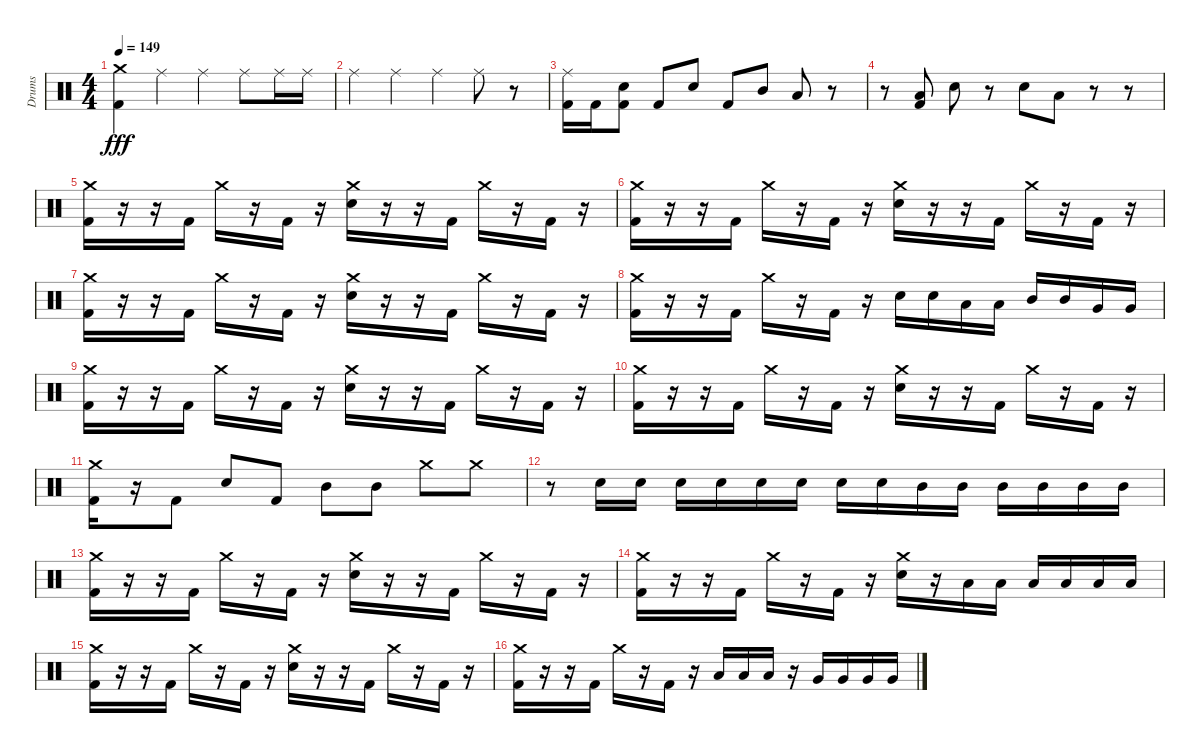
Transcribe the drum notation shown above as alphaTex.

\track ("Drums" "Drums") {instrument percussion}
\staff {score}
\articulation defaults
\ts (4 4)
\tempo 149
\clef neutral
\ks c
("Crash medium (hit)" "Kick (hit) 2").4{dy fff} "Ride (middle)".4 "Ride (middle)".4 "Ride (middle)".8 "Ride (middle)".16 "Ride (middle)".16 |
"Ride (middle)".4 "Ride (middle)".4 "Ride (middle)".4 "Ride (middle)".8 r.8 |
("Ride (middle)" "Kick (hit) 2").16 "Kick (hit) 2".16 ("Electric Snare (hit)" "Kick (hit) 2").8 "Kick (hit) 2".8 "Electric Snare (hit)".8 "Kick (hit) 2".8 "Mid Tom (hit)".8 "Low Tom (hit)".8 r.8 |
r.8 ("Low Tom (hit)" "Kick (hit) 2").8 "Electric Snare (hit)".8 r.8 "Electric Snare (hit)".8 "Low Tom (hit)".8 r.8 r.8 |
("Crash medium (hit)" "Kick (hit) 2").16 r.16 r.16 "Kick (hit) 2".16 "Crash medium (hit)".16 r.16 "Kick (hit) 2".16 r.16 ("Crash medium (hit)" "Electric Snare (hit)").16 r.16 r.16 "Kick (hit) 2".16 "Crash medium (hit)".16 r.16 "Kick (hit) 2".16 r.16 |
("Crash medium (hit)" "Kick (hit) 2").16 r.16 r.16 "Kick (hit) 2".16 "Crash medium (hit)".16 r.16 "Kick (hit) 2".16 r.16 ("Crash medium (hit)" "Electric Snare (hit)").16 r.16 r.16 "Kick (hit) 2".16 "Crash medium (hit)".16 r.16 "Kick (hit) 2".16 r.16 |
("Crash medium (hit)" "Kick (hit) 2").16 r.16 r.16 "Kick (hit) 2".16 "Crash medium (hit)".16 r.16 "Kick (hit) 2".16 r.16 ("Crash medium (hit)" "Electric Snare (hit)").16 r.16 r.16 "Kick (hit) 2".16 "Crash medium (hit)".16 r.16 "Kick (hit) 2".16 r.16 |
("Crash medium (hit)" "Kick (hit) 2").16 r.16 r.16 "Kick (hit) 2".16 "Crash medium (hit)".16 r.16 "Kick (hit) 2".16 r.16 "Electric Snare (hit)".16 "Electric Snare (hit)".16 "Low Tom (hit)".16 "Low Tom (hit)".16 "Mid Tom (hit)".16 "Mid Tom (hit)".16 "Very Low Tom (hit)".16 "Very Low Tom (hit)".16 |
("Crash medium (hit)" "Kick (hit) 2").16 r.16 r.16 "Kick (hit) 2".16 "Crash medium (hit)".16 r.16 "Kick (hit) 2".16 r.16 ("Crash medium (hit)" "Electric Snare (hit)").16 r.16 r.16 "Kick (hit) 2".16 "Crash medium (hit)".16 r.16 "Kick (hit) 2".16 r.16 |
("Crash medium (hit)" "Kick (hit) 2").16 r.16 r.16 "Kick (hit) 2".16 "Crash medium (hit)".16 r.16 "Kick (hit) 2".16 r.16 ("Crash medium (hit)" "Electric Snare (hit)").16 r.16 r.16 "Kick (hit) 2".16 "Crash medium (hit)".16 r.16 "Kick (hit) 2".16 r.16 |
("Crash medium (hit)" "Kick (hit) 2").16 r.16 "Kick (hit) 2".8 "Electric Snare (hit)".8 "Kick (hit) 2".8 "Mid Tom (hit)".8 "Mid Tom (hit)".8 "Crash medium (hit)".8 "Crash medium (hit)".8 |
r.8 "Electric Snare (hit)".16 "Electric Snare (hit)".16 "Electric Snare (hit)".16 "Electric Snare (hit)".16 "Electric Snare (hit)".16 "Electric Snare (hit)".16 "Electric Snare (hit)".16 "Electric Snare (hit)".16 "Mid Tom (hit)".16 "Mid Tom (hit)".16 "Mid Tom (hit)".16 "Mid Tom (hit)".16 "Mid Tom (hit)".16 "Mid Tom (hit)".16 |
("Crash medium (hit)" "Kick (hit) 2").16 r.16 r.16 "Kick (hit) 2".16 "Crash medium (hit)".16 r.16 "Kick (hit) 2".16 r.16 ("Crash medium (hit)" "Electric Snare (hit)").16 r.16 r.16 "Kick (hit) 2".16 "Crash medium (hit)".16 r.16 "Kick (hit) 2".16 r.16 |
("Crash medium (hit)" "Kick (hit) 2").16 r.16 r.16 "Kick (hit) 2".16 "Crash medium (hit)".16 r.16 "Kick (hit) 2".16 r.16 ("Crash medium (hit)" "Electric Snare (hit)").16 r.16 "Low Tom (hit)".16 "Low Tom (hit)".16 "Low Tom (hit)".16 "Low Tom (hit)".16 "Low Tom (hit)".16 "Low Tom (hit)".16 |
("Crash medium (hit)" "Kick (hit) 2").16 r.16 r.16 "Kick (hit) 2".16 "Crash medium (hit)".16 r.16 "Kick (hit) 2".16 r.16 ("Crash medium (hit)" "Electric Snare (hit)").16 r.16 r.16 "Kick (hit) 2".16 "Crash medium (hit)".16 r.16 "Kick (hit) 2".16 r.16 |
("Crash medium (hit)" "Kick (hit) 2").16 r.16 r.16 "Kick (hit) 2".16 "Crash medium (hit)".16 r.16 "Kick (hit) 2".16 r.16 "Low Tom (hit)".16 "Low Tom (hit)".16 "Low Tom (hit)".16 r.16 "Very Low Tom (hit)".16 "Very Low Tom (hit)".16 "Very Low Tom (hit)".16 "Very Low Tom (hit)".16
